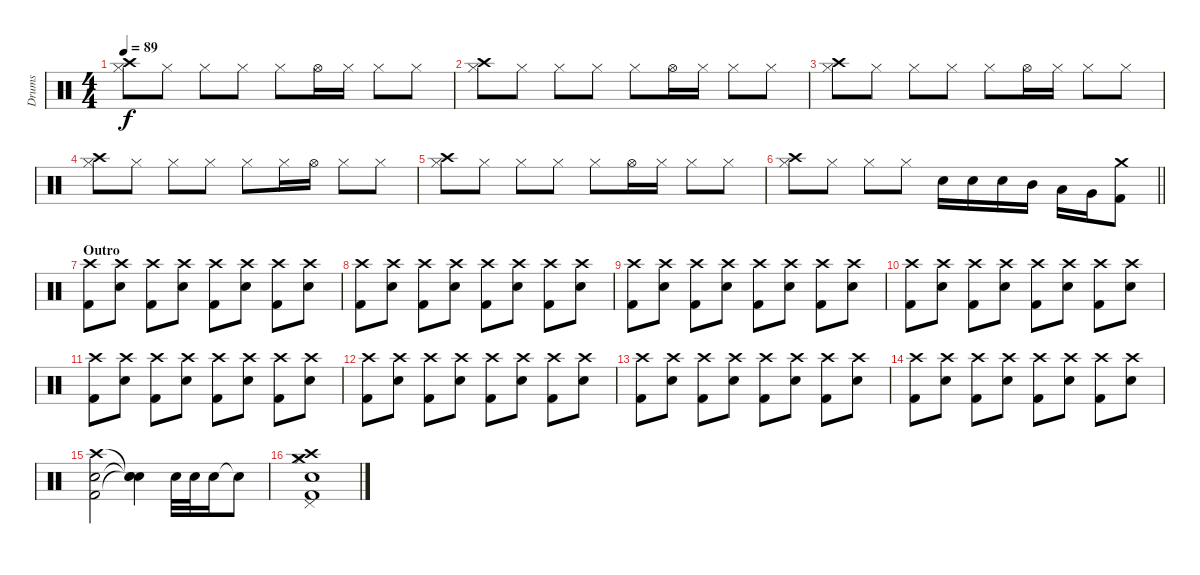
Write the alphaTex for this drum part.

\track ("Drums" "Drums") {instrument percussion}
\staff {score}
\articulation defaults
\ts (4 4)
\tempo 89
\clef neutral
\ks c
("Crash high (hit)" "Hi-Hat (closed)").8{dy f} "Hi-Hat (closed)".8 "Hi-Hat (closed)".8 "Hi-Hat (closed)".8 "Hi-Hat (closed)".8 "Hi-Hat (open)".16 "Hi-Hat (closed)".16 "Hi-Hat (closed)".8 "Hi-Hat (closed)".8 |
("Crash high (hit)" "Hi-Hat (closed)").8 "Hi-Hat (closed)".8 "Hi-Hat (closed)".8 "Hi-Hat (closed)".8 "Hi-Hat (closed)".8 "Hi-Hat (open)".16 "Hi-Hat (closed)".16 "Hi-Hat (closed)".8 "Hi-Hat (closed)".8 |
("Crash high (hit)" "Hi-Hat (closed)").8 "Hi-Hat (closed)".8 "Hi-Hat (closed)".8 "Hi-Hat (closed)".8 "Hi-Hat (closed)".8 "Hi-Hat (open)".16 "Hi-Hat (closed)".16 "Hi-Hat (closed)".8 "Hi-Hat (closed)".8 |
("Crash high (hit)" "Hi-Hat (closed)").8 "Hi-Hat (closed)".8 "Hi-Hat (closed)".8 "Hi-Hat (closed)".8 "Hi-Hat (closed)".8 "Hi-Hat (closed)".16 "Hi-Hat (open)".16 "Hi-Hat (closed)".8 "Hi-Hat (closed)".8 |
("Crash high (hit)" "Hi-Hat (closed)").8 "Hi-Hat (closed)".8 "Hi-Hat (closed)".8 "Hi-Hat (closed)".8 "Hi-Hat (closed)".8 "Hi-Hat (open)".16 "Hi-Hat (closed)".16 "Hi-Hat (closed)".8 "Hi-Hat (closed)".8 |
\barLineRight lightlight
("Crash high (hit)" "Hi-Hat (closed)").8 "Hi-Hat (closed)".8 "Hi-Hat (closed)".8 "Hi-Hat (closed)".8 "Snare (hit) 2".16 "Snare (hit) 2".16 "Snare (hit) 2".16 "Mid Tom (hit)".16 "Low Tom (hit)".16 "Very Low Tom (hit)".16 ("Crash medium (hit)" "Kick (hit) 2").8 |
\section ("" "Outro")
("Crash high (hit)" "Kick (hit) 2").8 ("Crash high (hit)" "Snare (hit) 2").8 ("Crash high (hit)" "Kick (hit) 2").8 ("Crash high (hit)" "Snare (hit) 2").8 ("Crash high (hit)" "Kick (hit) 2").8 ("Crash high (hit)" "Snare (hit) 2").8 ("Crash high (hit)" "Kick (hit) 2").8 ("Crash high (hit)" "Snare (hit) 2").8 |
("Crash high (hit)" "Kick (hit) 2").8 ("Crash high (hit)" "Snare (hit) 2").8 ("Crash high (hit)" "Kick (hit) 2").8 ("Crash high (hit)" "Snare (hit) 2").8 ("Crash high (hit)" "Kick (hit) 2").8 ("Crash high (hit)" "Snare (hit) 2").8 ("Crash high (hit)" "Kick (hit) 2").8 ("Crash high (hit)" "Snare (hit) 2").8 |
("Crash high (hit)" "Kick (hit) 2").8 ("Crash high (hit)" "Snare (hit) 2").8 ("Crash high (hit)" "Kick (hit) 2").8 ("Crash high (hit)" "Snare (hit) 2").8 ("Crash high (hit)" "Kick (hit) 2").8 ("Crash high (hit)" "Snare (hit) 2").8 ("Crash high (hit)" "Kick (hit) 2").8 ("Crash high (hit)" "Snare (hit) 2").8 |
("Crash high (hit)" "Kick (hit) 2").8 ("Crash high (hit)" "Snare (hit) 2").8 ("Crash high (hit)" "Kick (hit) 2").8 ("Crash high (hit)" "Snare (hit) 2").8 ("Crash high (hit)" "Kick (hit) 2").8 ("Crash high (hit)" "Snare (hit) 2").8 ("Crash high (hit)" "Kick (hit) 2").8 ("Crash high (hit)" "Snare (hit) 2").8 |
("Crash high (hit)" "Kick (hit) 2").8 ("Crash high (hit)" "Snare (hit) 2").8 ("Crash high (hit)" "Kick (hit) 2").8 ("Crash high (hit)" "Snare (hit) 2").8 ("Crash high (hit)" "Kick (hit) 2").8 ("Crash high (hit)" "Snare (hit) 2").8 ("Crash high (hit)" "Kick (hit) 2").8 ("Crash high (hit)" "Snare (hit) 2").8 |
("Crash high (hit)" "Kick (hit) 2").8 ("Crash high (hit)" "Snare (hit) 2").8 ("Crash high (hit)" "Kick (hit) 2").8 ("Crash high (hit)" "Snare (hit) 2").8 ("Crash high (hit)" "Kick (hit) 2").8 ("Crash high (hit)" "Snare (hit) 2").8 ("Crash high (hit)" "Kick (hit) 2").8 ("Crash high (hit)" "Snare (hit) 2").8 |
("Crash high (hit)" "Kick (hit) 2").8 ("Crash high (hit)" "Snare (hit) 2").8 ("Crash high (hit)" "Kick (hit) 2").8 ("Crash high (hit)" "Snare (hit) 2").8 ("Crash high (hit)" "Kick (hit) 2").8 ("Crash high (hit)" "Snare (hit) 2").8 ("Crash high (hit)" "Kick (hit) 2").8 ("Crash high (hit)" "Snare (hit) 2").8 |
("Crash high (hit)" "Kick (hit) 2").8 ("Crash high (hit)" "Snare (hit) 2").8 ("Crash high (hit)" "Kick (hit) 2").8 ("Crash high (hit)" "Snare (hit) 2").8 ("Crash high (hit)" "Kick (hit) 2").8 ("Crash high (hit)" "Snare (hit) 2").8 ("Crash high (hit)" "Kick (hit) 2").8 ("Crash high (hit)" "Snare (hit) 2").8 |
("Crash high (hit)" "Snare (hit) 2" "Kick (hit) 2").2 ("Snare (hit)"{t} "Snare (hit)"{t} "Snare (hit)"{t}).4 "Snare (hit) 2".32 "Snare (hit) 2".32 "Snare (hit) 2".16 "Snare (hit)"{t}.8 |
("Crash medium (hit)" "Crash high (hit)" "Hi-Hat (closed)" "Pedal Hi-Hat (hit)" "Snare (hit) 2" "Kick (hit) 2").1
